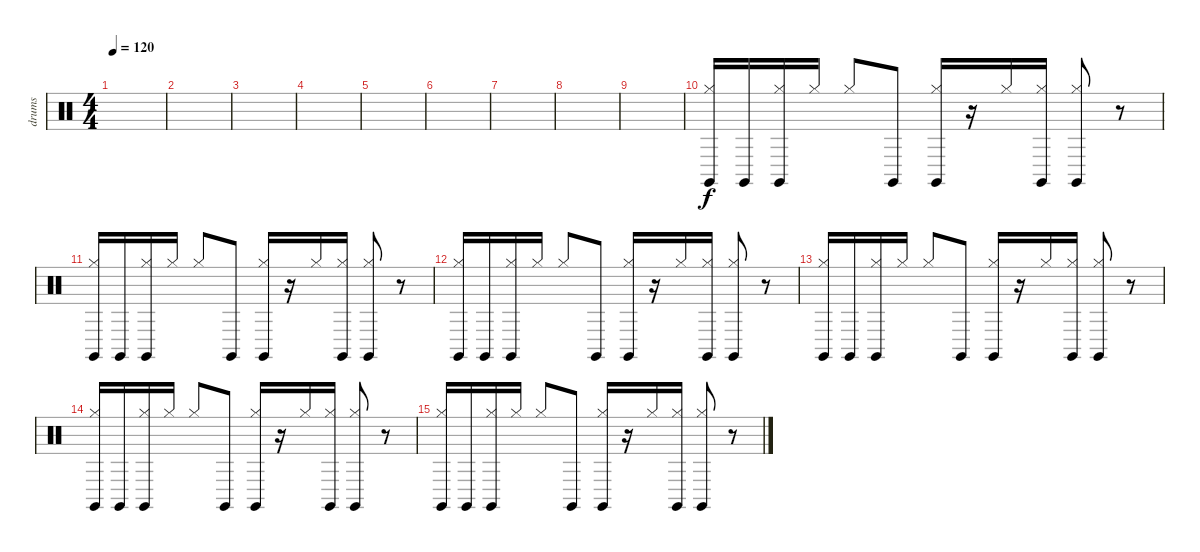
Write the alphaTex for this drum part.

\track ("drums" "drums") {instrument percussion}
\staff {score}
\articulation defaults
\ts (4 4)
\tempo 120
\clef neutral
\ks c
|
|
|
|
|
|
|
|
|
("Claves (hit)" "Hi-Hat (closed)").16 "Claves (hit)".16 ("Claves (hit)" "Hi-Hat (closed)").16 "Hi-Hat (closed)".16 "Hi-Hat (closed)".8 "Claves (hit)".8 ("Claves (hit)" "Hi-Hat (closed)").16 r.16 "Hi-Hat (closed)".16 ("Claves (hit)" "Hi-Hat (closed)").16 ("Claves (hit)" "Hi-Hat (closed)").8 r.8 |
("Claves (hit)" "Hi-Hat (closed)").16 "Claves (hit)".16 ("Claves (hit)" "Hi-Hat (closed)").16 "Hi-Hat (closed)".16 "Hi-Hat (closed)".8 "Claves (hit)".8 ("Claves (hit)" "Hi-Hat (closed)").16 r.16 "Hi-Hat (closed)".16 ("Claves (hit)" "Hi-Hat (closed)").16 ("Claves (hit)" "Hi-Hat (closed)").8 r.8 |
("Claves (hit)" "Hi-Hat (closed)").16 "Claves (hit)".16 ("Claves (hit)" "Hi-Hat (closed)").16 "Hi-Hat (closed)".16 "Hi-Hat (closed)".8 "Claves (hit)".8 ("Claves (hit)" "Hi-Hat (closed)").16 r.16 "Hi-Hat (closed)".16 ("Claves (hit)" "Hi-Hat (closed)").16 ("Claves (hit)" "Hi-Hat (closed)").8 r.8 |
("Claves (hit)" "Hi-Hat (closed)").16 "Claves (hit)".16 ("Claves (hit)" "Hi-Hat (closed)").16 "Hi-Hat (closed)".16 "Hi-Hat (closed)".8 "Claves (hit)".8 ("Claves (hit)" "Hi-Hat (closed)").16 r.16 "Hi-Hat (closed)".16 ("Claves (hit)" "Hi-Hat (closed)").16 ("Claves (hit)" "Hi-Hat (closed)").8 r.8 |
("Claves (hit)" "Hi-Hat (closed)").16 "Claves (hit)".16 ("Claves (hit)" "Hi-Hat (closed)").16 "Hi-Hat (closed)".16 "Hi-Hat (closed)".8 "Claves (hit)".8 ("Claves (hit)" "Hi-Hat (closed)").16 r.16 "Hi-Hat (closed)".16 ("Claves (hit)" "Hi-Hat (closed)").16 ("Claves (hit)" "Hi-Hat (closed)").8 r.8 |
("Claves (hit)" "Hi-Hat (closed)").16 "Claves (hit)".16 ("Claves (hit)" "Hi-Hat (closed)").16 "Hi-Hat (closed)".16 "Hi-Hat (closed)".8 "Claves (hit)".8 ("Claves (hit)" "Hi-Hat (closed)").16 r.16 "Hi-Hat (closed)".16 ("Claves (hit)" "Hi-Hat (closed)").16 ("Claves (hit)" "Hi-Hat (closed)").8 r.8
